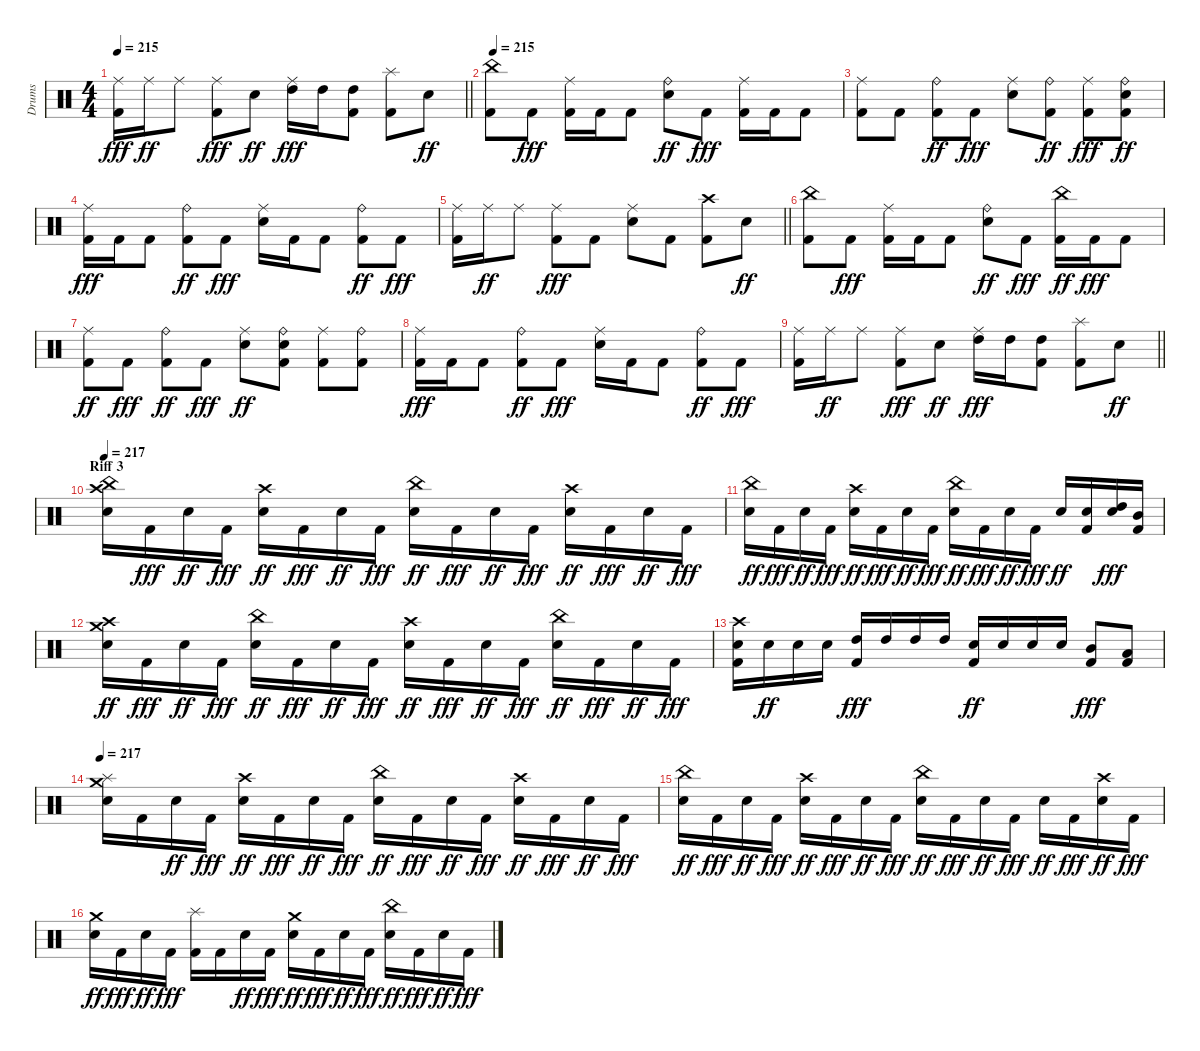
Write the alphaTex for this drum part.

\track ("Drums" "Drums") {instrument percussion}
\staff {score}
\articulation defaults
\ts (4 4)
\tempo 215
\clef neutral
\barLineRight lightlight
\ks c
("Kick (hit) 2" "Ride (middle)").16{dy fff} "Ride (middle)".16{dy ff} "Ride (middle)".8 ("Kick (hit) 2" "Ride (middle)").8{dy fff} "Snare (hit) 2".8{dy ff} ("High Tom (hit)" "Ride (middle)").16{dy fff} "High Tom (hit)".16 ("Kick (hit) 2" "High Tom (hit)").8 ("Kick (hit) 2" "Splash (hit)").8 "Snare (hit) 2".8{dy ff} |
\tempo 215
("Kick (hit) 2" "China (hit)").8 "Kick (hit) 2".8{dy fff} ("Kick (hit) 2" "Ride (middle)").16 "Kick (hit) 2".16 "Kick (hit) 2".8 ("Snare (hit) 2" "Ride (bell)").8{dy ff} "Kick (hit) 2".8{dy fff} ("Kick (hit) 2" "Ride (middle)").16 "Kick (hit) 2".16 "Kick (hit) 2".8 |
("Kick (hit) 2" "Ride (middle)").8 "Kick (hit) 2".8 ("Kick (hit) 2" "Ride (bell)").8{dy ff} "Kick (hit) 2".8{dy fff} ("Snare (hit) 2" "Ride (middle)").8 ("Kick (hit) 2" "Ride (bell)").8{dy ff} ("Kick (hit) 2" "Ride (middle)").8{dy fff} ("Kick (hit) 2" "Snare (hit) 2" "Ride (bell)").8{dy ff} |
("Kick (hit) 2" "Ride (middle)").16{dy fff} "Kick (hit) 2".16 "Kick (hit) 2".8 ("Kick (hit) 2" "Ride (bell)").8{dy ff} "Kick (hit) 2".8{dy fff} ("Snare (hit) 2" "Ride (middle)").16 "Kick (hit) 2".16 "Kick (hit) 2".8 ("Kick (hit) 2" "Ride (bell)").8{dy ff} "Kick (hit) 2".8{dy fff} |
\barLineRight lightlight
("Kick (hit) 2" "Ride (middle)").16 "Ride (middle)".16{dy ff} "Ride (middle)".8 ("Kick (hit) 2" "Ride (middle)").8{dy fff} "Kick (hit) 2".8 ("Snare (hit) 2" "Ride (middle)").8 "Kick (hit) 2".8 ("Kick (hit) 2" "Crash high (hit)").8 "Snare (hit) 2".8{dy ff} |
("Kick (hit) 2" "China (hit)").8 "Kick (hit) 2".8{dy fff} ("Kick (hit) 2" "Ride (middle)").16 "Kick (hit) 2".16 "Kick (hit) 2".8 ("Snare (hit) 2" "Ride (bell)").8{dy ff} "Kick (hit) 2".8{dy fff} ("Kick (hit) 2" "China (hit)").16{dy ff} "Kick (hit) 2".16{dy fff} "Kick (hit) 2".8 |
("Kick (hit) 2" "Ride (middle)").8{dy ff} "Kick (hit) 2".8{dy fff} ("Kick (hit) 2" "Ride (bell)").8{dy ff} "Kick (hit) 2".8{dy fff} ("Snare (hit) 2" "Ride (middle)").8{dy ff} ("Kick (hit) 2" "Snare (hit) 2" "Ride (bell)").8 ("Kick (hit) 2" "Ride (middle)").8 ("Kick (hit) 2" "Ride (bell)").8 |
("Kick (hit) 2" "Ride (middle)").16{dy fff} "Kick (hit) 2".16 "Kick (hit) 2".8 ("Kick (hit) 2" "Ride (bell)").8{dy ff} "Kick (hit) 2".8{dy fff} ("Snare (hit) 2" "Ride (middle)").16 "Kick (hit) 2".16 "Kick (hit) 2".8 ("Kick (hit) 2" "Ride (bell)").8{dy ff} "Kick (hit) 2".8{dy fff} |
\barLineRight lightlight
("Kick (hit) 2" "Ride (middle)").16 "Ride (middle)".16{dy ff} "Ride (middle)".8 ("Kick (hit) 2" "Ride (middle)").8{dy fff} "Snare (hit) 2".8{dy ff} ("High Tom (hit)" "Ride (middle)").16{dy fff} "High Tom (hit)".16 ("Kick (hit) 2" "High Tom (hit)").8 ("Kick (hit) 2" "Splash (hit)").8 "Snare (hit) 2".8{dy ff} |
\section ("" "Riff 3")
\tempo 217
("Snare (hit) 2" "Crash high (hit)" "China (hit)").16 "Kick (hit) 2".16{dy fff} "Snare (hit) 2".16{dy ff} "Kick (hit) 2".16{dy fff} ("Snare (hit) 2" "Crash high (hit)").16{dy ff} "Kick (hit) 2".16{dy fff} "Snare (hit) 2".16{dy ff} "Kick (hit) 2".16{dy fff} ("Snare (hit) 2" "China (hit)").16{dy ff} "Kick (hit) 2".16{dy fff} "Snare (hit) 2".16{dy ff} "Kick (hit) 2".16{dy fff} ("Snare (hit) 2" "Crash high (hit)").16{dy ff} "Kick (hit) 2".16{dy fff} "Snare (hit) 2".16{dy ff} "Kick (hit) 2".16{dy fff} |
("Snare (hit) 2" "China (hit)").16{dy ff} "Kick (hit) 2".16{dy fff} "Snare (hit) 2".16{dy ff} "Kick (hit) 2".16{dy fff} ("Snare (hit) 2" "Crash high (hit)").16{dy ff} "Kick (hit) 2".16{dy fff} "Snare (hit) 2".16{dy ff} "Kick (hit) 2".16{dy fff} ("Snare (hit) 2" "China (hit)").16{dy ff} "Kick (hit) 2".16{dy fff} "Snare (hit) 2".16{dy ff} "Kick (hit) 2".16{dy fff} "Snare (hit) 2".16{dy ff} ("Kick (hit) 2" "Snare (hit) 2").16 ("Snare (hit) 2" "High Tom (hit)").16{dy fff} ("Kick (hit) 2" "Mid Tom (hit)").16 |
("Snare (hit) 2" "Crash high (hit)" "Crash medium (hit)").16{dy ff} "Kick (hit) 2".16{dy fff} "Snare (hit) 2".16{dy ff} "Kick (hit) 2".16{dy fff} ("Snare (hit) 2" "China (hit)").16{dy ff} "Kick (hit) 2".16{dy fff} "Snare (hit) 2".16{dy ff} "Kick (hit) 2".16{dy fff} ("Snare (hit) 2" "Crash high (hit)").16{dy ff} "Kick (hit) 2".16{dy fff} "Snare (hit) 2".16{dy ff} "Kick (hit) 2".16{dy fff} ("Snare (hit) 2" "China (hit)").16{dy ff} "Kick (hit) 2".16{dy fff} "Snare (hit) 2".16{dy ff} "Kick (hit) 2".16{dy fff} |
("Kick (hit) 2" "Snare (hit) 2" "Crash high (hit)").16 "Snare (hit) 2".16{dy ff} "Snare (hit) 2".16 "Snare (hit) 2".16 ("Kick (hit) 2" "High Tom (hit)").16{dy fff} "High Tom (hit)".16 "High Tom (hit)".16 "High Tom (hit)".16 ("Kick (hit) 2" "Snare (hit) 2").16{dy ff} "Snare (hit) 2".16 "Snare (hit) 2".16 "Snare (hit) 2".16 ("Kick (hit) 2" "Mid Tom (hit)").8{dy fff} ("Kick (hit) 2" "Low Tom (hit)").8 |
\tempo 217
("Snare (hit) 2" "Splash (hit)" "Crash medium (hit)").16 "Kick (hit) 2".16 "Snare (hit) 2".16{dy ff} "Kick (hit) 2".16{dy fff} ("Snare (hit) 2" "Crash high (hit)").16{dy ff} "Kick (hit) 2".16{dy fff} "Snare (hit) 2".16{dy ff} "Kick (hit) 2".16{dy fff} ("Snare (hit) 2" "China (hit)").16{dy ff} "Kick (hit) 2".16{dy fff} "Snare (hit) 2".16{dy ff} "Kick (hit) 2".16{dy fff} ("Snare (hit) 2" "Crash high (hit)").16{dy ff} "Kick (hit) 2".16{dy fff} "Snare (hit) 2".16{dy ff} "Kick (hit) 2".16{dy fff} |
("Snare (hit) 2" "China (hit)").16{dy ff} "Kick (hit) 2".16{dy fff} "Snare (hit) 2".16{dy ff} "Kick (hit) 2".16{dy fff} ("Snare (hit) 2" "Crash high (hit)").16{dy ff} "Kick (hit) 2".16{dy fff} "Snare (hit) 2".16{dy ff} "Kick (hit) 2".16{dy fff} ("Snare (hit) 2" "China (hit)").16{dy ff} "Kick (hit) 2".16{dy fff} "Snare (hit) 2".16{dy ff} "Kick (hit) 2".16{dy fff} "Snare (hit) 2".16{dy ff} "Kick (hit) 2".16{dy fff} ("Snare (hit) 2" "Crash high (hit)").16{dy ff} "Kick (hit) 2".16{dy fff} |
("Snare (hit) 2" "Crash medium (hit)").16{dy ff} "Kick (hit) 2".16{dy fff} "Snare (hit) 2".16{dy ff} "Kick (hit) 2".16{dy fff} ("Kick (hit) 2" "Splash (hit)").16 "Kick (hit) 2".16 "Snare (hit) 2".16{dy ff} "Kick (hit) 2".16{dy fff} ("Snare (hit) 2" "Crash medium (hit)").16{dy ff} "Kick (hit) 2".16{dy fff} "Snare (hit) 2".16{dy ff} "Kick (hit) 2".16{dy fff} ("Snare (hit) 2" "China (hit)").16{dy ff} "Kick (hit) 2".16{dy fff} "Snare (hit) 2".16{dy ff} "Kick (hit) 2".16{dy fff}
